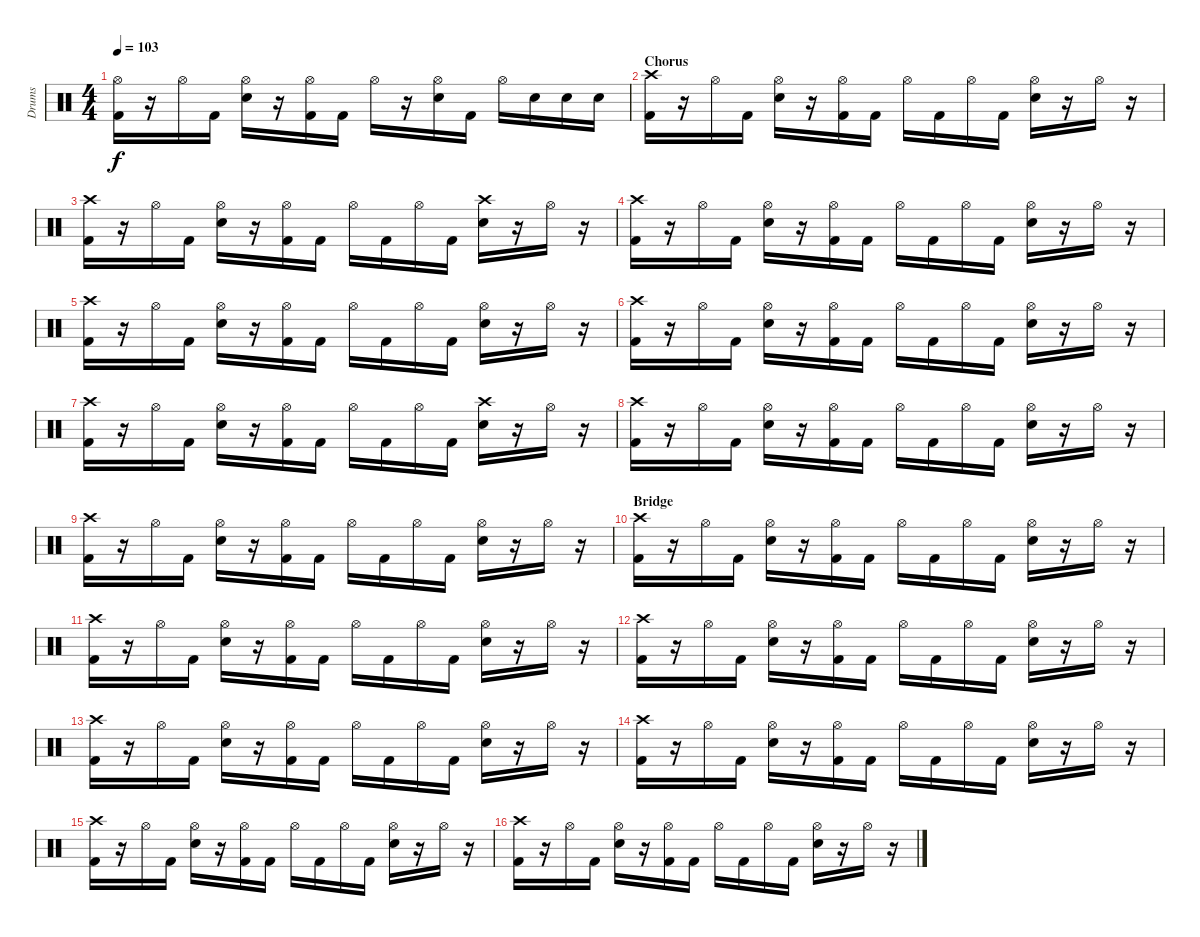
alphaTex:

\track ("Drums" "Drums") {instrument percussion}
\staff {score}
\articulation defaults
\ts (4 4)
\tempo 103
\clef neutral
\ks c
("Hi-Hat (open)" "Kick (hit) 2").16{dy f} r.16 "Hi-Hat (open)".16 "Kick (hit) 2".16 ("Hi-Hat (open)" "Electric Snare (hit)").16 r.16 ("Hi-Hat (open)" "Kick (hit) 2").16 "Kick (hit) 2".16 "Hi-Hat (open)".16 r.16 ("Hi-Hat (open)" "Electric Snare (hit)").16 "Kick (hit) 2".16 "Hi-Hat (open)".16 "Electric Snare (hit)".16 "Electric Snare (hit)".16 "Electric Snare (hit)".16 |
\section ("" "Chorus")
("Crash high (hit)" "Kick (hit) 2").16 r.16 "Hi-Hat (open)".16 "Kick (hit) 2".16 ("Hi-Hat (open)" "Electric Snare (hit)").16 r.16 ("Hi-Hat (open)" "Kick (hit) 2").16 "Kick (hit) 2".16 "Hi-Hat (open)".16 "Kick (hit) 2".16 "Hi-Hat (open)".16 "Kick (hit) 2".16 ("Hi-Hat (open)" "Electric Snare (hit)").16 r.16 "Hi-Hat (open)".16 r.16 |
("Crash high (hit)" "Kick (hit) 2").16 r.16 "Hi-Hat (open)".16 "Kick (hit) 2".16 ("Hi-Hat (open)" "Electric Snare (hit)").16 r.16 ("Hi-Hat (open)" "Kick (hit) 2").16 "Kick (hit) 2".16 "Hi-Hat (open)".16 "Kick (hit) 2".16 "Hi-Hat (open)".16 "Kick (hit) 2".16 ("Crash high (hit)" "Electric Snare (hit)").16 r.16 "Hi-Hat (open)".16 r.16 |
("Crash high (hit)" "Kick (hit) 2").16 r.16 "Hi-Hat (open)".16 "Kick (hit) 2".16 ("Hi-Hat (open)" "Electric Snare (hit)").16 r.16 ("Hi-Hat (open)" "Kick (hit) 2").16 "Kick (hit) 2".16 "Hi-Hat (open)".16 "Kick (hit) 2".16 "Hi-Hat (open)".16 "Kick (hit) 2".16 ("Hi-Hat (open)" "Electric Snare (hit)").16 r.16 "Hi-Hat (open)".16 r.16 |
("Crash high (hit)" "Kick (hit) 2").16 r.16 "Hi-Hat (open)".16 "Kick (hit) 2".16 ("Hi-Hat (open)" "Electric Snare (hit)").16 r.16 ("Hi-Hat (open)" "Kick (hit) 2").16 "Kick (hit) 2".16 "Hi-Hat (open)".16 "Kick (hit) 2".16 "Hi-Hat (open)".16 "Kick (hit) 2".16 ("Hi-Hat (open)" "Electric Snare (hit)").16 r.16 "Hi-Hat (open)".16 r.16 |
("Crash high (hit)" "Kick (hit) 2").16 r.16 "Hi-Hat (open)".16 "Kick (hit) 2".16 ("Hi-Hat (open)" "Electric Snare (hit)").16 r.16 ("Hi-Hat (open)" "Kick (hit) 2").16 "Kick (hit) 2".16 "Hi-Hat (open)".16 "Kick (hit) 2".16 "Hi-Hat (open)".16 "Kick (hit) 2".16 ("Hi-Hat (open)" "Electric Snare (hit)").16 r.16 "Hi-Hat (open)".16 r.16 |
("Crash high (hit)" "Kick (hit) 2").16 r.16 "Hi-Hat (open)".16 "Kick (hit) 2".16 ("Hi-Hat (open)" "Electric Snare (hit)").16 r.16 ("Hi-Hat (open)" "Kick (hit) 2").16 "Kick (hit) 2".16 "Hi-Hat (open)".16 "Kick (hit) 2".16 "Hi-Hat (open)".16 "Kick (hit) 2".16 ("Crash high (hit)" "Electric Snare (hit)").16 r.16 "Hi-Hat (open)".16 r.16 |
("Crash high (hit)" "Kick (hit) 2").16 r.16 "Hi-Hat (open)".16 "Kick (hit) 2".16 ("Hi-Hat (open)" "Electric Snare (hit)").16 r.16 ("Hi-Hat (open)" "Kick (hit) 2").16 "Kick (hit) 2".16 "Hi-Hat (open)".16 "Kick (hit) 2".16 "Hi-Hat (open)".16 "Kick (hit) 2".16 ("Hi-Hat (open)" "Electric Snare (hit)").16 r.16 "Hi-Hat (open)".16 r.16 |
("Crash high (hit)" "Kick (hit) 2").16 r.16 "Hi-Hat (open)".16 "Kick (hit) 2".16 ("Hi-Hat (open)" "Electric Snare (hit)").16 r.16 ("Hi-Hat (open)" "Kick (hit) 2").16 "Kick (hit) 2".16 "Hi-Hat (open)".16 "Kick (hit) 2".16 "Hi-Hat (open)".16 "Kick (hit) 2".16 ("Hi-Hat (open)" "Electric Snare (hit)").16 r.16 "Hi-Hat (open)".16 r.16 |
\section ("" "Bridge")
("Crash high (hit)" "Kick (hit) 2").16 r.16 "Hi-Hat (open)".16 "Kick (hit) 2".16 ("Hi-Hat (open)" "Electric Snare (hit)").16 r.16 ("Hi-Hat (open)" "Kick (hit) 2").16 "Kick (hit) 2".16 "Hi-Hat (open)".16 "Kick (hit) 2".16 "Hi-Hat (open)".16 "Kick (hit) 2".16 ("Hi-Hat (open)" "Electric Snare (hit)").16 r.16 "Hi-Hat (open)".16 r.16 |
("Crash high (hit)" "Kick (hit) 2").16 r.16 "Hi-Hat (open)".16 "Kick (hit) 2".16 ("Hi-Hat (open)" "Electric Snare (hit)").16 r.16 ("Hi-Hat (open)" "Kick (hit) 2").16 "Kick (hit) 2".16 "Hi-Hat (open)".16 "Kick (hit) 2".16 "Hi-Hat (open)".16 "Kick (hit) 2".16 ("Hi-Hat (open)" "Electric Snare (hit)").16 r.16 "Hi-Hat (open)".16 r.16 |
("Crash high (hit)" "Kick (hit) 2").16 r.16 "Hi-Hat (open)".16 "Kick (hit) 2".16 ("Hi-Hat (open)" "Electric Snare (hit)").16 r.16 ("Hi-Hat (open)" "Kick (hit) 2").16 "Kick (hit) 2".16 "Hi-Hat (open)".16 "Kick (hit) 2".16 "Hi-Hat (open)".16 "Kick (hit) 2".16 ("Hi-Hat (open)" "Electric Snare (hit)").16 r.16 "Hi-Hat (open)".16 r.16 |
("Crash high (hit)" "Kick (hit) 2").16 r.16 "Hi-Hat (open)".16 "Kick (hit) 2".16 ("Hi-Hat (open)" "Electric Snare (hit)").16 r.16 ("Hi-Hat (open)" "Kick (hit) 2").16 "Kick (hit) 2".16 "Hi-Hat (open)".16 "Kick (hit) 2".16 "Hi-Hat (open)".16 "Kick (hit) 2".16 ("Hi-Hat (open)" "Electric Snare (hit)").16 r.16 "Hi-Hat (open)".16 r.16 |
("Crash high (hit)" "Kick (hit) 2").16 r.16 "Hi-Hat (open)".16 "Kick (hit) 2".16 ("Hi-Hat (open)" "Electric Snare (hit)").16 r.16 ("Hi-Hat (open)" "Kick (hit) 2").16 "Kick (hit) 2".16 "Hi-Hat (open)".16 "Kick (hit) 2".16 "Hi-Hat (open)".16 "Kick (hit) 2".16 ("Hi-Hat (open)" "Electric Snare (hit)").16 r.16 "Hi-Hat (open)".16 r.16 |
("Crash high (hit)" "Kick (hit) 2").16 r.16 "Hi-Hat (open)".16 "Kick (hit) 2".16 ("Hi-Hat (open)" "Electric Snare (hit)").16 r.16 ("Hi-Hat (open)" "Kick (hit) 2").16 "Kick (hit) 2".16 "Hi-Hat (open)".16 "Kick (hit) 2".16 "Hi-Hat (open)".16 "Kick (hit) 2".16 ("Hi-Hat (open)" "Electric Snare (hit)").16 r.16 "Hi-Hat (open)".16 r.16 |
("Crash high (hit)" "Kick (hit) 2").16 r.16 "Hi-Hat (open)".16 "Kick (hit) 2".16 ("Hi-Hat (open)" "Electric Snare (hit)").16 r.16 ("Hi-Hat (open)" "Kick (hit) 2").16 "Kick (hit) 2".16 "Hi-Hat (open)".16 "Kick (hit) 2".16 "Hi-Hat (open)".16 "Kick (hit) 2".16 ("Hi-Hat (open)" "Electric Snare (hit)").16 r.16 "Hi-Hat (open)".16 r.16
